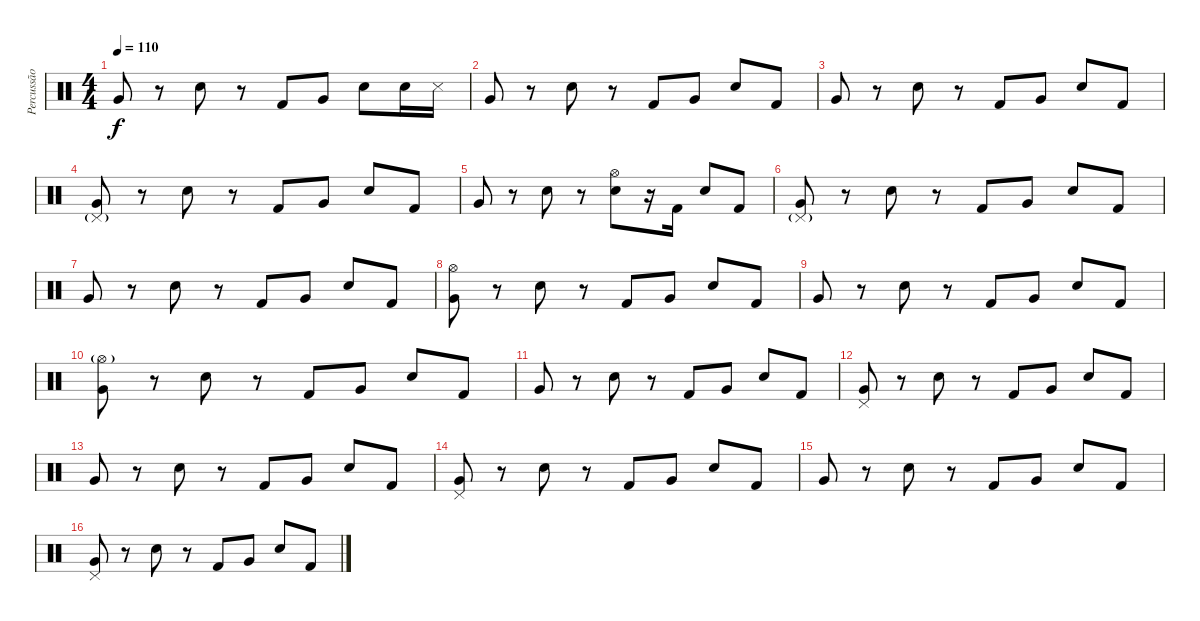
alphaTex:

\track ("Percussão" "Percussão") {instrument percussion}
\staff {score}
\articulation defaults
\ts (4 4)
\tempo 110
\clef neutral
\ks c "Very Low Tom (hit)".8{dy f}
r.8 "Electric Snare (hit)".8 r.8 "Kick (hit) 2".8 "Very Low Tom (hit)".8 "Electric Snare (hit)".8 "Electric Snare (hit)".16 "Snare (side stick) 3".16 |
"Very Low Tom (hit)".8 r.8 "Electric Snare (hit)".8 r.8 "Kick (hit) 2".8 "Very Low Tom (hit)".8 "Electric Snare (hit)".8 "Kick (hit) 2".8 |
"Very Low Tom (hit)".8 r.8 "Electric Snare (hit)".8 r.8 "Kick (hit) 2".8 "Very Low Tom (hit)".8 "Electric Snare (hit)".8 "Kick (hit) 2".8 |
("Pedal Hi-Hat (hit)"{g} "Very Low Tom (hit)").8 r.8 "Electric Snare (hit)".8 r.8 "Kick (hit) 2".8 "Very Low Tom (hit)".8 "Electric Snare (hit)".8 "Kick (hit) 2".8 |
"Very Low Tom (hit)".8 r.8 "Electric Snare (hit)".8 r.8 ("Hi-Hat (open)" "Electric Snare (hit)").8 r.16 "Kick (hit) 2".16 "Electric Snare (hit)".8 "Kick (hit) 2".8 |
("Pedal Hi-Hat (hit)"{g} "Very Low Tom (hit)").8 r.8 "Electric Snare (hit)".8 r.8 "Kick (hit) 2".8 "Very Low Tom (hit)".8 "Electric Snare (hit)".8 "Kick (hit) 2".8 |
"Very Low Tom (hit)".8 r.8 "Electric Snare (hit)".8 r.8 "Kick (hit) 2".8 "Very Low Tom (hit)".8 "Electric Snare (hit)".8 "Kick (hit) 2".8 |
("Hi-Hat (open)" "Very Low Tom (hit)").8 r.8 "Electric Snare (hit)".8 r.8 "Kick (hit) 2".8 "Very Low Tom (hit)".8 "Electric Snare (hit)".8 "Kick (hit) 2".8 |
"Very Low Tom (hit)".8 r.8 "Electric Snare (hit)".8 r.8 "Kick (hit) 2".8 "Very Low Tom (hit)".8 "Electric Snare (hit)".8 "Kick (hit) 2".8 |
("Hi-Hat (open)"{g} "Very Low Tom (hit)").8 r.8 "Electric Snare (hit)".8 r.8 "Kick (hit) 2".8 "Very Low Tom (hit)".8 "Electric Snare (hit)".8 "Kick (hit) 2".8 |
"Very Low Tom (hit)".8 r.8 "Electric Snare (hit)".8 r.8 "Kick (hit) 2".8 "Very Low Tom (hit)".8 "Electric Snare (hit)".8 "Kick (hit) 2".8 |
("Pedal Hi-Hat (hit)" "Very Low Tom (hit)").8 r.8 "Electric Snare (hit)".8 r.8 "Kick (hit) 2".8 "Very Low Tom (hit)".8 "Electric Snare (hit)".8 "Kick (hit) 2".8 |
"Very Low Tom (hit)".8 r.8 "Electric Snare (hit)".8 r.8 "Kick (hit) 2".8 "Very Low Tom (hit)".8 "Electric Snare (hit)".8 "Kick (hit) 2".8 |
("Pedal Hi-Hat (hit)" "Very Low Tom (hit)").8 r.8 "Electric Snare (hit)".8 r.8 "Kick (hit) 2".8 "Very Low Tom (hit)".8 "Electric Snare (hit)".8 "Kick (hit) 2".8 |
"Very Low Tom (hit)".8 r.8 "Electric Snare (hit)".8 r.8 "Kick (hit) 2".8 "Very Low Tom (hit)".8 "Electric Snare (hit)".8 "Kick (hit) 2".8 |
("Pedal Hi-Hat (hit)" "Very Low Tom (hit)").8 r.8 "Electric Snare (hit)".8 r.8 "Kick (hit) 2".8 "Very Low Tom (hit)".8 "Electric Snare (hit)".8 "Kick (hit) 2".8
